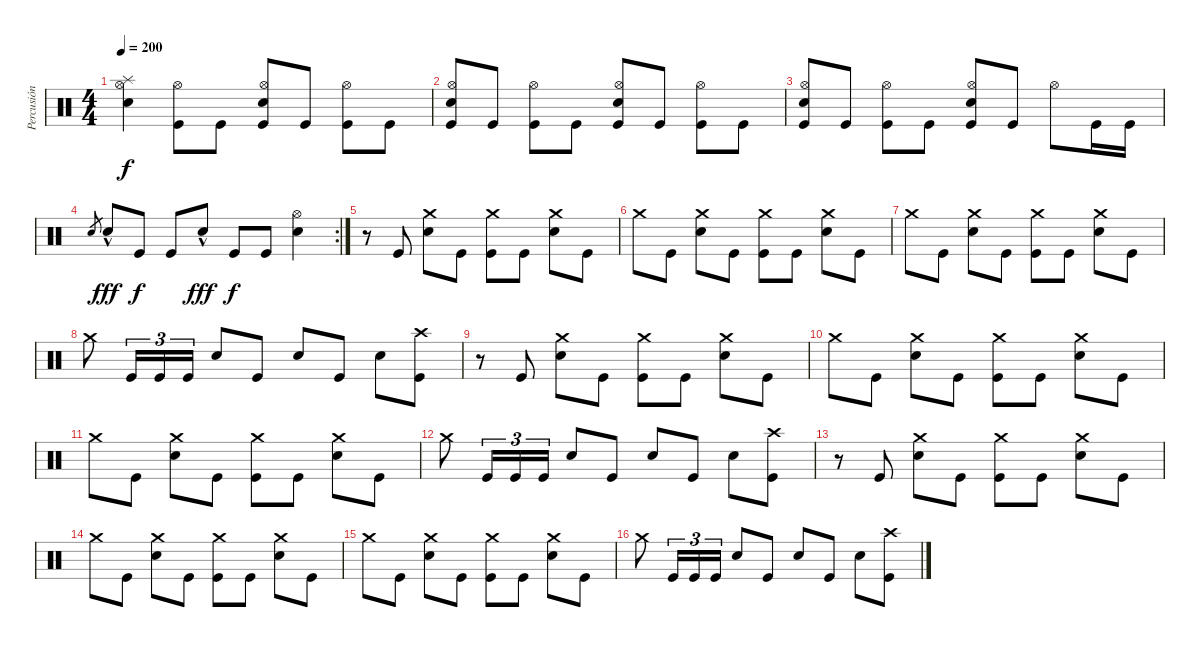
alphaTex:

\track ("Percusión" "Percusión") {instrument percussion}
\staff {score}
\articulation defaults
\ts (4 4)
\tempo 200
\clef neutral
\ks c
("Electric Snare (hit)" "Splash (hit)" "Hi-Hat (open)").4{dy f} ("Hi-Hat (open)" "Kick (hit)").8 "Kick (hit)".8 ("Electric Snare (hit)" "Hi-Hat (open)" "Kick (hit)").8 "Kick (hit)".8 ("Hi-Hat (open)" "Kick (hit)").8 "Kick (hit)".8 |
("Electric Snare (hit)" "Hi-Hat (open)" "Kick (hit)").8 "Kick (hit)".8 ("Hi-Hat (open)" "Kick (hit)").8 "Kick (hit)".8 ("Electric Snare (hit)" "Hi-Hat (open)" "Kick (hit)").8 "Kick (hit)".8 ("Hi-Hat (open)" "Kick (hit)").8 "Kick (hit)".8 |
("Electric Snare (hit)" "Hi-Hat (open)" "Kick (hit)").8 "Kick (hit)".8 ("Hi-Hat (open)" "Kick (hit)").8 "Kick (hit)".8 ("Electric Snare (hit)" "Hi-Hat (open)" "Kick (hit)").8 "Kick (hit)".8 "Hi-Hat (open)".8 "Kick (hit)".16 "Kick (hit)".16 |
\rc 2 "Electric Snare (hit)".8{gr} "Electric Snare (hit)"{hac}.8{dy fff} "Kick (hit)".8{dy f} "Kick (hit)".8 "Electric Snare (hit)"{hac}.8{dy fff} "Kick (hit)".8{dy f} "Kick (hit)".8
("Electric Snare (hit)" "Hi-Hat (open)").4 |
r.8 "Kick (hit)".8 ("Electric Snare (hit)" "Crash medium (hit)").8 "Kick (hit)".8 ("Crash medium (hit)" "Kick (hit)").8 "Kick (hit)".8 ("Electric Snare (hit)" "Crash medium (hit)").8 "Kick (hit)".8 |
"Crash medium (hit)".8 "Kick (hit)".8 ("Electric Snare (hit)" "Crash medium (hit)").8 "Kick (hit)".8 ("Crash medium (hit)" "Kick (hit)").8 "Kick (hit)".8 ("Electric Snare (hit)" "Crash medium (hit)").8 "Kick (hit)".8 |
"Crash medium (hit)".8 "Kick (hit)".8 ("Electric Snare (hit)" "Crash medium (hit)").8 "Kick (hit)".8 ("Crash medium (hit)" "Kick (hit)").8 "Kick (hit)".8 ("Electric Snare (hit)" "Crash medium (hit)").8 "Kick (hit)".8 |
"Crash medium (hit)".8 "Kick (hit)".16{tu (3 2)} "Kick (hit)".16{tu (3 2)} "Kick (hit)".16{tu (3 2)} "Electric Snare (hit)".8 "Kick (hit)".8 "Electric Snare (hit)".8 "Kick (hit)".8 "Electric Snare (hit)".8 ("Crash high (hit)" "Kick (hit)").8 |
r.8 "Kick (hit)".8 ("Electric Snare (hit)" "Crash medium (hit)").8 "Kick (hit)".8 ("Crash medium (hit)" "Kick (hit)").8 "Kick (hit)".8 ("Electric Snare (hit)" "Crash medium (hit)").8 "Kick (hit)".8 |
"Crash medium (hit)".8 "Kick (hit)".8 ("Electric Snare (hit)" "Crash medium (hit)").8 "Kick (hit)".8 ("Crash medium (hit)" "Kick (hit)").8 "Kick (hit)".8 ("Electric Snare (hit)" "Crash medium (hit)").8 "Kick (hit)".8 |
"Crash medium (hit)".8 "Kick (hit)".8 ("Electric Snare (hit)" "Crash medium (hit)").8 "Kick (hit)".8 ("Crash medium (hit)" "Kick (hit)").8 "Kick (hit)".8 ("Electric Snare (hit)" "Crash medium (hit)").8 "Kick (hit)".8 |
"Crash medium (hit)".8 "Kick (hit)".16{tu (3 2)} "Kick (hit)".16{tu (3 2)} "Kick (hit)".16{tu (3 2)} "Electric Snare (hit)".8 "Kick (hit)".8 "Electric Snare (hit)".8 "Kick (hit)".8 "Electric Snare (hit)".8 ("Crash high (hit)" "Kick (hit)").8 |
r.8 "Kick (hit)".8 ("Electric Snare (hit)" "Crash medium (hit)").8 "Kick (hit)".8 ("Crash medium (hit)" "Kick (hit)").8 "Kick (hit)".8 ("Electric Snare (hit)" "Crash medium (hit)").8 "Kick (hit)".8 |
"Crash medium (hit)".8 "Kick (hit)".8 ("Electric Snare (hit)" "Crash medium (hit)").8 "Kick (hit)".8 ("Crash medium (hit)" "Kick (hit)").8 "Kick (hit)".8 ("Electric Snare (hit)" "Crash medium (hit)").8 "Kick (hit)".8 |
"Crash medium (hit)".8 "Kick (hit)".8 ("Electric Snare (hit)" "Crash medium (hit)").8 "Kick (hit)".8 ("Crash medium (hit)" "Kick (hit)").8 "Kick (hit)".8 ("Electric Snare (hit)" "Crash medium (hit)").8 "Kick (hit)".8 |
"Crash medium (hit)".8 "Kick (hit)".16{tu (3 2)} "Kick (hit)".16{tu (3 2)} "Kick (hit)".16{tu (3 2)} "Electric Snare (hit)".8 "Kick (hit)".8 "Electric Snare (hit)".8 "Kick (hit)".8 "Electric Snare (hit)".8 ("Crash high (hit)" "Kick (hit)").8
